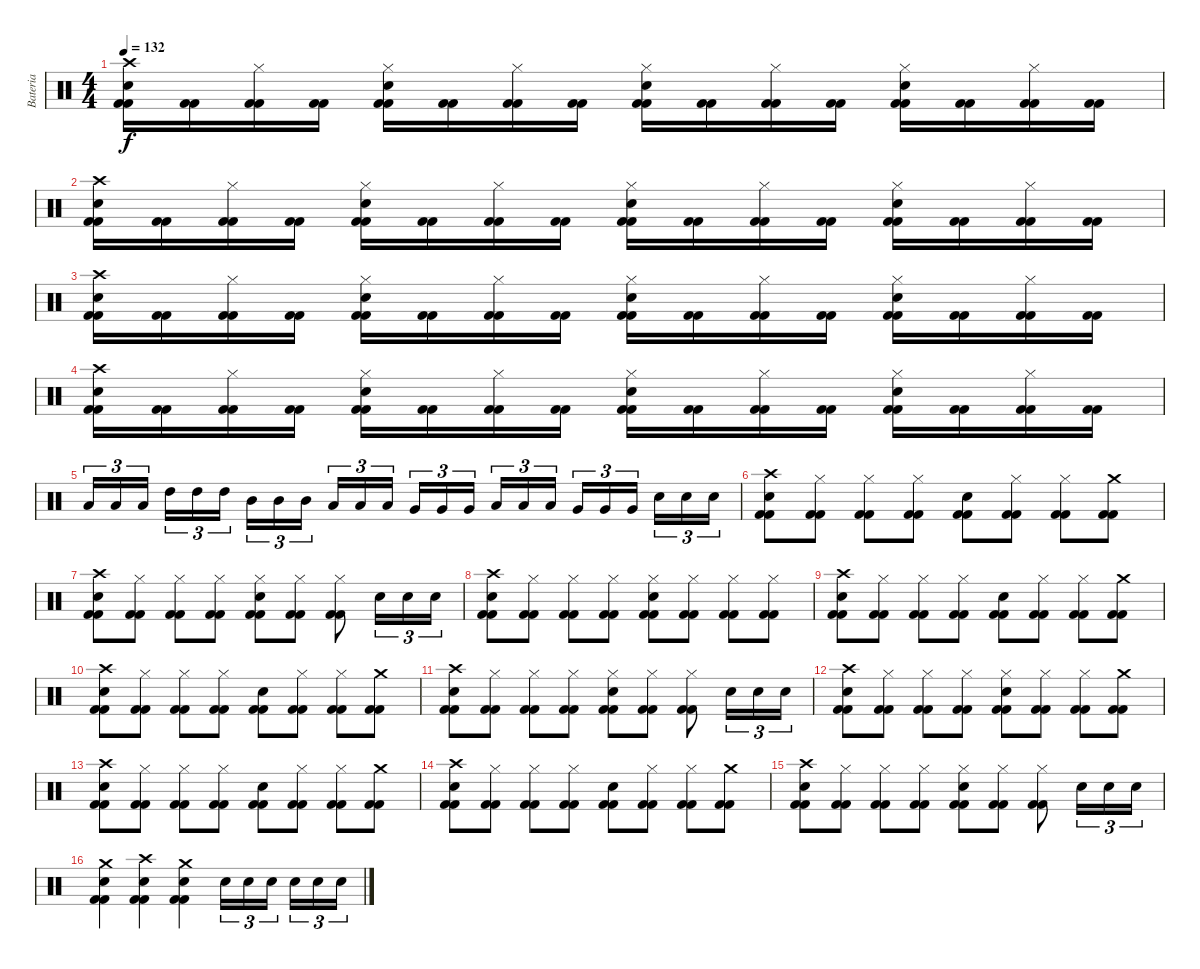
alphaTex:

\track ("Bateria" "Bateria") {instrument percussion}
\staff {score}
\articulation defaults
\ts (4 4)
\tempo 132
\clef neutral
\ks c
("Kick (hit) 2" "Kick (hit) 2" "Snare (hit) 2" "Crash high (hit)").16{dy f} ("Kick (hit) 2" "Kick (hit) 2").16 ("Kick (hit) 2" "Kick (hit) 2" "Hi-Hat (closed)").16 ("Kick (hit) 2" "Kick (hit) 2").16 ("Kick (hit) 2" "Kick (hit) 2" "Snare (hit) 2" "Hi-Hat (closed)").16 ("Kick (hit) 2" "Kick (hit) 2").16 ("Kick (hit) 2" "Kick (hit) 2" "Hi-Hat (closed)").16 ("Kick (hit) 2" "Kick (hit) 2").16 ("Kick (hit) 2" "Kick (hit) 2" "Snare (hit) 2" "Hi-Hat (closed)").16 ("Kick (hit) 2" "Kick (hit) 2").16 ("Kick (hit) 2" "Kick (hit) 2" "Hi-Hat (closed)").16 ("Kick (hit) 2" "Kick (hit) 2").16 ("Kick (hit) 2" "Kick (hit) 2" "Snare (hit) 2" "Hi-Hat (closed)").16 ("Kick (hit) 2" "Kick (hit) 2").16 ("Kick (hit) 2" "Kick (hit) 2" "Hi-Hat (closed)").16 ("Kick (hit) 2" "Kick (hit) 2").16 |
("Kick (hit) 2" "Kick (hit) 2" "Snare (hit) 2" "Crash high (hit)").16 ("Kick (hit) 2" "Kick (hit) 2").16 ("Kick (hit) 2" "Kick (hit) 2" "Hi-Hat (closed)").16 ("Kick (hit) 2" "Kick (hit) 2").16 ("Kick (hit) 2" "Kick (hit) 2" "Snare (hit) 2" "Hi-Hat (closed)").16 ("Kick (hit) 2" "Kick (hit) 2").16 ("Kick (hit) 2" "Kick (hit) 2" "Hi-Hat (closed)").16 ("Kick (hit) 2" "Kick (hit) 2").16 ("Kick (hit) 2" "Kick (hit) 2" "Snare (hit) 2" "Hi-Hat (closed)").16 ("Kick (hit) 2" "Kick (hit) 2").16 ("Kick (hit) 2" "Kick (hit) 2" "Hi-Hat (closed)").16 ("Kick (hit) 2" "Kick (hit) 2").16 ("Kick (hit) 2" "Kick (hit) 2" "Snare (hit) 2" "Hi-Hat (closed)").16 ("Kick (hit) 2" "Kick (hit) 2").16 ("Kick (hit) 2" "Kick (hit) 2" "Hi-Hat (closed)").16 ("Kick (hit) 2" "Kick (hit) 2").16 |
("Kick (hit) 2" "Kick (hit) 2" "Snare (hit) 2" "Crash high (hit)").16 ("Kick (hit) 2" "Kick (hit) 2").16 ("Kick (hit) 2" "Kick (hit) 2" "Hi-Hat (closed)").16 ("Kick (hit) 2" "Kick (hit) 2").16 ("Kick (hit) 2" "Kick (hit) 2" "Snare (hit) 2" "Hi-Hat (closed)").16 ("Kick (hit) 2" "Kick (hit) 2").16 ("Kick (hit) 2" "Kick (hit) 2" "Hi-Hat (closed)").16 ("Kick (hit) 2" "Kick (hit) 2").16 ("Kick (hit) 2" "Kick (hit) 2" "Snare (hit) 2" "Hi-Hat (closed)").16 ("Kick (hit) 2" "Kick (hit) 2").16 ("Kick (hit) 2" "Kick (hit) 2" "Hi-Hat (closed)").16 ("Kick (hit) 2" "Kick (hit) 2").16 ("Kick (hit) 2" "Kick (hit) 2" "Snare (hit) 2" "Hi-Hat (closed)").16 ("Kick (hit) 2" "Kick (hit) 2").16 ("Kick (hit) 2" "Kick (hit) 2" "Hi-Hat (closed)").16 ("Kick (hit) 2" "Kick (hit) 2").16 |
("Kick (hit) 2" "Kick (hit) 2" "Snare (hit) 2" "Crash high (hit)").16 ("Kick (hit) 2" "Kick (hit) 2").16 ("Kick (hit) 2" "Kick (hit) 2" "Hi-Hat (closed)").16 ("Kick (hit) 2" "Kick (hit) 2").16 ("Kick (hit) 2" "Kick (hit) 2" "Snare (hit) 2" "Hi-Hat (closed)").16 ("Kick (hit) 2" "Kick (hit) 2").16 ("Kick (hit) 2" "Kick (hit) 2" "Hi-Hat (closed)").16 ("Kick (hit) 2" "Kick (hit) 2").16 ("Kick (hit) 2" "Kick (hit) 2" "Snare (hit) 2" "Hi-Hat (closed)").16 ("Kick (hit) 2" "Kick (hit) 2").16 ("Kick (hit) 2" "Kick (hit) 2" "Hi-Hat (closed)").16 ("Kick (hit) 2" "Kick (hit) 2").16 ("Kick (hit) 2" "Kick (hit) 2" "Snare (hit) 2" "Hi-Hat (closed)").16 ("Kick (hit) 2" "Kick (hit) 2").16 ("Kick (hit) 2" "Kick (hit) 2" "Hi-Hat (closed)").16 ("Kick (hit) 2" "Kick (hit) 2").16 |
"Low Tom (hit)".16{tu (3 2)} "Low Tom (hit)".16{tu (3 2)} "Low Tom (hit)".16{tu (3 2)} "High Tom (hit)".16{tu (3 2)} "High Tom (hit)".16{tu (3 2)} "High Tom (hit)".16{tu (3 2)} "Mid Tom (hit)".16{tu (3 2)} "Mid Tom (hit)".16{tu (3 2)} "Mid Tom (hit)".16{tu (3 2)} "Low Tom (hit)".16{tu (3 2)} "Low Tom (hit)".16{tu (3 2)} "Low Tom (hit)".16{tu (3 2)} "Very Low Tom (hit)".16{tu (3 2)} "Very Low Tom (hit)".16{tu (3 2)} "Very Low Tom (hit)".16{tu (3 2)} "Low Floor Tom (hit)".16{tu (3 2)} "Low Floor Tom (hit)".16{tu (3 2)} "Low Floor Tom (hit)".16{tu (3 2)} "Very Low Tom (hit)".16{tu (3 2)} "Very Low Tom (hit)".16{tu (3 2)} "Very Low Tom (hit)".16{tu (3 2)} "Snare (hit) 2".16{tu (3 2)} "Snare (hit) 2".16{tu (3 2)} "Snare (hit) 2".16{tu (3 2)} |
("Kick (hit) 2" "Kick (hit) 2" "Snare (hit) 2" "Crash high (hit)").8 ("Kick (hit) 2" "Kick (hit) 2" "Hi-Hat (closed)").8 ("Kick (hit) 2" "Kick (hit) 2" "Hi-Hat (closed)").8 ("Kick (hit) 2" "Kick (hit) 2" "Hi-Hat (closed)").8 ("Kick (hit) 2" "Kick (hit) 2" "Snare (hit) 2").8 ("Kick (hit) 2" "Kick (hit) 2" "Hi-Hat (closed)").8 ("Kick (hit) 2" "Kick (hit) 2" "Hi-Hat (closed)").8 ("Kick (hit) 2" "Kick (hit) 2" "Crash medium (hit)").8 |
("Kick (hit) 2" "Kick (hit) 2" "Snare (hit) 2" "Crash high (hit)").8 ("Kick (hit) 2" "Kick (hit) 2" "Hi-Hat (closed)").8 ("Kick (hit) 2" "Kick (hit) 2" "Hi-Hat (closed)").8 ("Kick (hit) 2" "Kick (hit) 2" "Hi-Hat (closed)").8 ("Kick (hit) 2" "Kick (hit) 2" "Hi-Hat (closed)" "Snare (hit) 2").8 ("Kick (hit) 2" "Kick (hit) 2" "Hi-Hat (closed)").8 ("Kick (hit) 2" "Kick (hit) 2" "Hi-Hat (closed)").8 "Snare (hit) 2".16{tu (3 2)} "Snare (hit) 2".16{tu (3 2)} "Snare (hit) 2".16{tu (3 2)} |
("Kick (hit) 2" "Kick (hit) 2" "Snare (hit) 2" "Crash high (hit)").8 ("Kick (hit) 2" "Kick (hit) 2" "Hi-Hat (closed)").8 ("Kick (hit) 2" "Kick (hit) 2" "Hi-Hat (closed)").8 ("Kick (hit) 2" "Kick (hit) 2" "Hi-Hat (closed)").8 ("Kick (hit) 2" "Kick (hit) 2" "Hi-Hat (closed)" "Snare (hit) 2").8 ("Kick (hit) 2" "Kick (hit) 2" "Hi-Hat (closed)").8 ("Kick (hit) 2" "Kick (hit) 2" "Hi-Hat (closed)").8 ("Kick (hit) 2" "Kick (hit) 2" "Hi-Hat (closed)").8 |
("Kick (hit) 2" "Kick (hit) 2" "Snare (hit) 2" "Crash high (hit)").8 ("Kick (hit) 2" "Kick (hit) 2" "Hi-Hat (closed)").8 ("Kick (hit) 2" "Kick (hit) 2" "Hi-Hat (closed)").8 ("Kick (hit) 2" "Kick (hit) 2" "Hi-Hat (closed)").8 ("Kick (hit) 2" "Kick (hit) 2" "Snare (hit) 2").8 ("Kick (hit) 2" "Kick (hit) 2" "Hi-Hat (closed)").8 ("Kick (hit) 2" "Kick (hit) 2" "Hi-Hat (closed)").8 ("Kick (hit) 2" "Kick (hit) 2" "Crash medium (hit)").8 |
("Kick (hit) 2" "Kick (hit) 2" "Snare (hit) 2" "Crash high (hit)").8 ("Kick (hit) 2" "Kick (hit) 2" "Hi-Hat (closed)").8 ("Kick (hit) 2" "Kick (hit) 2" "Hi-Hat (closed)").8 ("Kick (hit) 2" "Kick (hit) 2" "Hi-Hat (closed)").8 ("Kick (hit) 2" "Kick (hit) 2" "Snare (hit) 2").8 ("Kick (hit) 2" "Kick (hit) 2" "Hi-Hat (closed)").8 ("Kick (hit) 2" "Kick (hit) 2" "Hi-Hat (closed)").8 ("Kick (hit) 2" "Kick (hit) 2" "Crash medium (hit)").8 |
("Kick (hit) 2" "Kick (hit) 2" "Snare (hit) 2" "Crash high (hit)").8 ("Kick (hit) 2" "Kick (hit) 2" "Hi-Hat (closed)").8 ("Kick (hit) 2" "Kick (hit) 2" "Hi-Hat (closed)").8 ("Kick (hit) 2" "Kick (hit) 2" "Hi-Hat (closed)").8 ("Kick (hit) 2" "Kick (hit) 2" "Hi-Hat (closed)" "Snare (hit) 2").8 ("Kick (hit) 2" "Kick (hit) 2" "Hi-Hat (closed)").8 ("Kick (hit) 2" "Kick (hit) 2" "Hi-Hat (closed)").8 "Snare (hit) 2".16{tu (3 2)} "Snare (hit) 2".16{tu (3 2)} "Snare (hit) 2".16{tu (3 2)} |
("Kick (hit) 2" "Kick (hit) 2" "Snare (hit) 2" "Crash high (hit)").8 ("Kick (hit) 2" "Kick (hit) 2" "Hi-Hat (closed)").8 ("Kick (hit) 2" "Kick (hit) 2" "Hi-Hat (closed)").8 ("Kick (hit) 2" "Kick (hit) 2" "Hi-Hat (closed)").8 ("Kick (hit) 2" "Kick (hit) 2" "Hi-Hat (closed)" "Snare (hit) 2").8 ("Kick (hit) 2" "Kick (hit) 2" "Hi-Hat (closed)").8 ("Kick (hit) 2" "Kick (hit) 2" "Hi-Hat (closed)").8 ("Kick (hit) 2" "Kick (hit) 2" "Crash medium (hit)").8 |
("Kick (hit) 2" "Kick (hit) 2" "Snare (hit) 2" "Crash high (hit)").8 ("Kick (hit) 2" "Kick (hit) 2" "Hi-Hat (closed)").8 ("Kick (hit) 2" "Kick (hit) 2" "Hi-Hat (closed)").8 ("Kick (hit) 2" "Kick (hit) 2" "Hi-Hat (closed)").8 ("Kick (hit) 2" "Kick (hit) 2" "Snare (hit) 2").8 ("Kick (hit) 2" "Kick (hit) 2" "Hi-Hat (closed)").8 ("Kick (hit) 2" "Kick (hit) 2" "Hi-Hat (closed)").8 ("Kick (hit) 2" "Kick (hit) 2" "Crash medium (hit)").8 |
("Kick (hit) 2" "Kick (hit) 2" "Snare (hit) 2" "Crash high (hit)").8 ("Kick (hit) 2" "Kick (hit) 2" "Hi-Hat (closed)").8 ("Kick (hit) 2" "Kick (hit) 2" "Hi-Hat (closed)").8 ("Kick (hit) 2" "Kick (hit) 2" "Hi-Hat (closed)").8 ("Kick (hit) 2" "Kick (hit) 2" "Snare (hit) 2").8 ("Kick (hit) 2" "Kick (hit) 2" "Hi-Hat (closed)").8 ("Kick (hit) 2" "Kick (hit) 2" "Hi-Hat (closed)").8 ("Kick (hit) 2" "Kick (hit) 2" "Crash medium (hit)").8 |
("Kick (hit) 2" "Kick (hit) 2" "Snare (hit) 2" "Crash high (hit)").8 ("Kick (hit) 2" "Kick (hit) 2" "Hi-Hat (closed)").8 ("Kick (hit) 2" "Kick (hit) 2" "Hi-Hat (closed)").8 ("Kick (hit) 2" "Kick (hit) 2" "Hi-Hat (closed)").8 ("Kick (hit) 2" "Kick (hit) 2" "Hi-Hat (closed)" "Snare (hit) 2").8 ("Kick (hit) 2" "Kick (hit) 2" "Hi-Hat (closed)").8 ("Kick (hit) 2" "Kick (hit) 2" "Hi-Hat (closed)").8 "Snare (hit) 2".16{tu (3 2)} "Snare (hit) 2".16{tu (3 2)} "Snare (hit) 2".16{tu (3 2)} |
("Kick (hit) 2" "Kick (hit) 2" "Snare (hit) 2" "Crash medium (hit)").4 ("Kick (hit) 2" "Kick (hit) 2" "Snare (hit) 2" "Crash high (hit)").4 ("Kick (hit) 2" "Kick (hit) 2" "Snare (hit) 2" "Crash medium (hit)").4 "Snare (hit) 2".16{tu (3 2)} "Snare (hit) 2".16{tu (3 2)} "Snare (hit) 2".16{tu (3 2)} "Snare (hit) 2".16{tu (3 2)} "Snare (hit) 2".16{tu (3 2)} "Snare (hit) 2".16{tu (3 2)}
